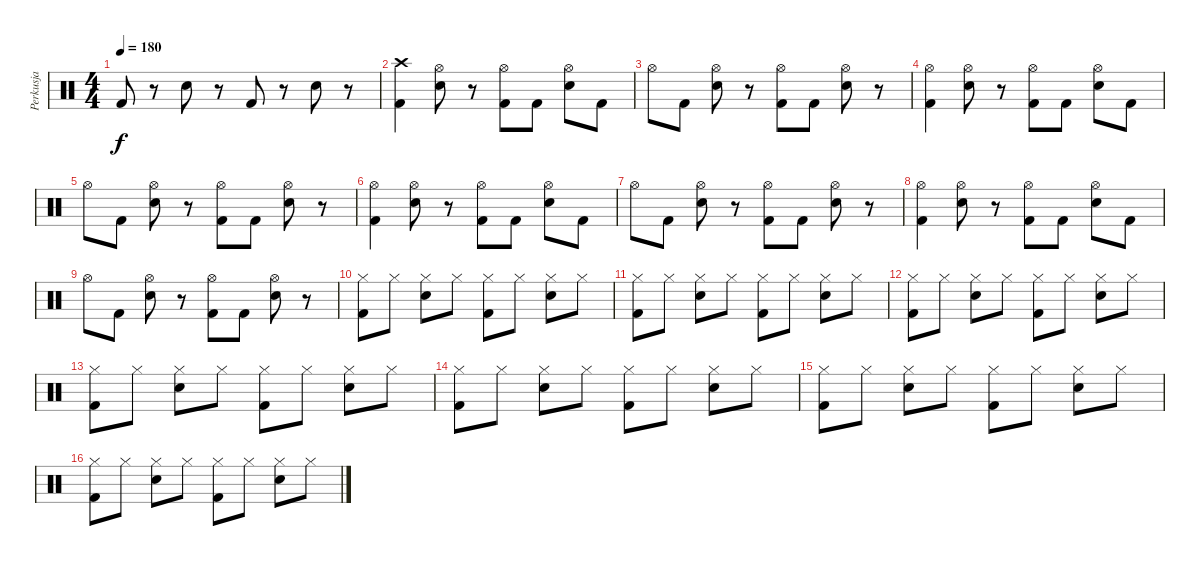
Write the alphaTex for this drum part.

\track ("Perkusja" "Perkusja") {instrument percussion}
\staff {score}
\articulation defaults
\ts (4 4)
\tempo 180
\clef neutral
\ks c "Kick (hit) 2".8{dy f}
r.8 "Electric Snare (hit)".8 r.8 "Kick (hit) 2".8 r.8 "Electric Snare (hit)".8 r.8 |
("Crash high (hit)" "Kick (hit) 2").4 ("Hi-Hat (open)" "Electric Snare (hit)").8 r.8 ("Hi-Hat (open)" "Kick (hit) 2").8 "Kick (hit) 2".8 ("Hi-Hat (open)" "Electric Snare (hit)").8 "Kick (hit) 2".8 |
"Hi-Hat (open)".8 "Kick (hit) 2".8 ("Hi-Hat (open)" "Electric Snare (hit)").8 r.8 ("Hi-Hat (open)" "Kick (hit) 2").8 "Kick (hit) 2".8 ("Hi-Hat (open)" "Electric Snare (hit)").8 r.8 |
("Hi-Hat (open)" "Kick (hit) 2").4 ("Hi-Hat (open)" "Electric Snare (hit)").8 r.8 ("Hi-Hat (open)" "Kick (hit) 2").8 "Kick (hit) 2".8 ("Hi-Hat (open)" "Electric Snare (hit)").8 "Kick (hit) 2".8 |
"Hi-Hat (open)".8 "Kick (hit) 2".8 ("Hi-Hat (open)" "Electric Snare (hit)").8 r.8 ("Hi-Hat (open)" "Kick (hit) 2").8 "Kick (hit) 2".8 ("Hi-Hat (open)" "Electric Snare (hit)").8 r.8 |
("Hi-Hat (open)" "Kick (hit) 2").4 ("Hi-Hat (open)" "Electric Snare (hit)").8 r.8 ("Hi-Hat (open)" "Kick (hit) 2").8 "Kick (hit) 2".8 ("Hi-Hat (open)" "Electric Snare (hit)").8 "Kick (hit) 2".8 |
"Hi-Hat (open)".8 "Kick (hit) 2".8 ("Hi-Hat (open)" "Electric Snare (hit)").8 r.8 ("Hi-Hat (open)" "Kick (hit) 2").8 "Kick (hit) 2".8 ("Hi-Hat (open)" "Electric Snare (hit)").8 r.8 |
("Hi-Hat (open)" "Kick (hit) 2").4 ("Hi-Hat (open)" "Electric Snare (hit)").8 r.8 ("Hi-Hat (open)" "Kick (hit) 2").8 "Kick (hit) 2".8 ("Hi-Hat (open)" "Electric Snare (hit)").8 "Kick (hit) 2".8 |
"Hi-Hat (open)".8 "Kick (hit) 2".8 ("Hi-Hat (open)" "Electric Snare (hit)").8 r.8 ("Hi-Hat (open)" "Kick (hit) 2").8 "Kick (hit) 2".8 ("Hi-Hat (open)" "Electric Snare (hit)").8 r.8 |
("Hi-Hat (closed)" "Kick (hit) 2").8 "Hi-Hat (closed)".8 ("Hi-Hat (closed)" "Electric Snare (hit)").8 "Hi-Hat (closed)".8 ("Hi-Hat (closed)" "Kick (hit) 2").8 "Hi-Hat (closed)".8 ("Hi-Hat (closed)" "Electric Snare (hit)").8 "Hi-Hat (closed)".8 |
("Hi-Hat (closed)" "Kick (hit) 2").8 "Hi-Hat (closed)".8 ("Hi-Hat (closed)" "Electric Snare (hit)").8 "Hi-Hat (closed)".8 ("Hi-Hat (closed)" "Kick (hit) 2").8 "Hi-Hat (closed)".8 ("Hi-Hat (closed)" "Electric Snare (hit)").8 "Hi-Hat (closed)".8 |
("Hi-Hat (closed)" "Kick (hit) 2").8 "Hi-Hat (closed)".8 ("Hi-Hat (closed)" "Electric Snare (hit)").8 "Hi-Hat (closed)".8 ("Hi-Hat (closed)" "Kick (hit) 2").8 "Hi-Hat (closed)".8 ("Hi-Hat (closed)" "Electric Snare (hit)").8 "Hi-Hat (closed)".8 |
("Hi-Hat (closed)" "Kick (hit) 2").8 "Hi-Hat (closed)".8 ("Hi-Hat (closed)" "Electric Snare (hit)").8 "Hi-Hat (closed)".8 ("Hi-Hat (closed)" "Kick (hit) 2").8 "Hi-Hat (closed)".8 ("Hi-Hat (closed)" "Electric Snare (hit)").8 "Hi-Hat (closed)".8 |
("Hi-Hat (closed)" "Kick (hit) 2").8 "Hi-Hat (closed)".8 ("Hi-Hat (closed)" "Electric Snare (hit)").8 "Hi-Hat (closed)".8 ("Hi-Hat (closed)" "Kick (hit) 2").8 "Hi-Hat (closed)".8 ("Hi-Hat (closed)" "Electric Snare (hit)").8 "Hi-Hat (closed)".8 |
("Hi-Hat (closed)" "Kick (hit) 2").8 "Hi-Hat (closed)".8 ("Hi-Hat (closed)" "Electric Snare (hit)").8 "Hi-Hat (closed)".8 ("Hi-Hat (closed)" "Kick (hit) 2").8 "Hi-Hat (closed)".8 ("Hi-Hat (closed)" "Electric Snare (hit)").8 "Hi-Hat (closed)".8 |
("Hi-Hat (closed)" "Kick (hit) 2").8 "Hi-Hat (closed)".8 ("Hi-Hat (closed)" "Electric Snare (hit)").8 "Hi-Hat (closed)".8 ("Hi-Hat (closed)" "Kick (hit) 2").8 "Hi-Hat (closed)".8 ("Hi-Hat (closed)" "Electric Snare (hit)").8 "Hi-Hat (closed)".8
